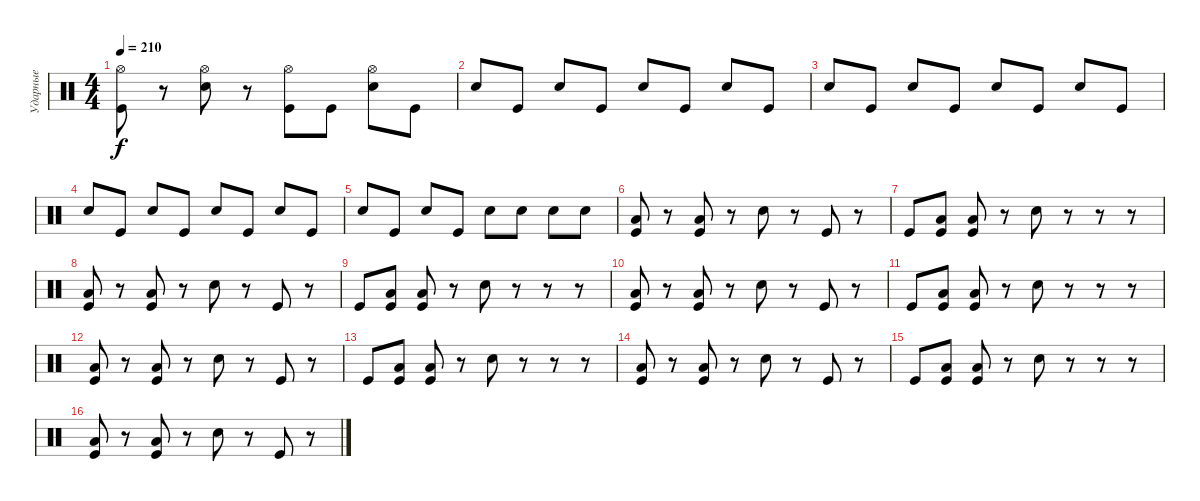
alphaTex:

\track ("Ударные" "Ударные") {instrument percussion}
\staff {score}
\articulation defaults
\ts (4 4)
\tempo 210
\clef neutral
\ks c
("Hi-Hat (open)" "Kick (hit)").8{dy f} r.8 ("Hi-Hat (open)" "Electric Snare (hit)").8 r.8 ("Hi-Hat (open)" "Kick (hit)").8 "Kick (hit)".8 ("Hi-Hat (open)" "Electric Snare (hit)").8 "Kick (hit)".8 |
"Electric Snare (hit)".8 "Kick (hit)".8 "Electric Snare (hit)".8 "Kick (hit)".8 "Electric Snare (hit)".8 "Kick (hit)".8 "Electric Snare (hit)".8 "Kick (hit)".8 |
"Electric Snare (hit)".8 "Kick (hit)".8 "Electric Snare (hit)".8 "Kick (hit)".8 "Electric Snare (hit)".8 "Kick (hit)".8 "Electric Snare (hit)".8 "Kick (hit)".8 |
"Electric Snare (hit)".8 "Kick (hit)".8 "Electric Snare (hit)".8 "Kick (hit)".8 "Electric Snare (hit)".8 "Kick (hit)".8 "Electric Snare (hit)".8 "Kick (hit)".8 |
"Electric Snare (hit)".8 "Kick (hit)".8 "Electric Snare (hit)".8 "Kick (hit)".8 "Electric Snare (hit)".8 "Electric Snare (hit)".8 "Electric Snare (hit)".8 "Electric Snare (hit)".8 |
("Low Tom (hit)" "Kick (hit)").8 r.8 ("Low Tom (hit)" "Kick (hit)").8 r.8 "Electric Snare (hit)".8 r.8 "Kick (hit)".8 r.8 |
"Kick (hit)".8 ("Low Tom (hit)" "Kick (hit)").8 ("Low Tom (hit)" "Kick (hit)").8 r.8 "Electric Snare (hit)".8 r.8 r.8 r.8 |
("Low Tom (hit)" "Kick (hit)").8 r.8 ("Low Tom (hit)" "Kick (hit)").8 r.8 "Electric Snare (hit)".8 r.8 "Kick (hit)".8 r.8 |
"Kick (hit)".8 ("Low Tom (hit)" "Kick (hit)").8 ("Low Tom (hit)" "Kick (hit)").8 r.8 "Electric Snare (hit)".8 r.8 r.8 r.8 |
("Low Tom (hit)" "Kick (hit)").8 r.8 ("Low Tom (hit)" "Kick (hit)").8 r.8 "Electric Snare (hit)".8 r.8 "Kick (hit)".8 r.8 |
"Kick (hit)".8 ("Low Tom (hit)" "Kick (hit)").8 ("Low Tom (hit)" "Kick (hit)").8 r.8 "Electric Snare (hit)".8 r.8 r.8 r.8 |
("Low Tom (hit)" "Kick (hit)").8 r.8 ("Low Tom (hit)" "Kick (hit)").8 r.8 "Electric Snare (hit)".8 r.8 "Kick (hit)".8 r.8 |
"Kick (hit)".8 ("Low Tom (hit)" "Kick (hit)").8 ("Low Tom (hit)" "Kick (hit)").8 r.8 "Electric Snare (hit)".8 r.8 r.8 r.8 |
("Low Tom (hit)" "Kick (hit)").8 r.8 ("Low Tom (hit)" "Kick (hit)").8 r.8 "Electric Snare (hit)".8 r.8 "Kick (hit)".8 r.8 |
"Kick (hit)".8 ("Low Tom (hit)" "Kick (hit)").8 ("Low Tom (hit)" "Kick (hit)").8 r.8 "Electric Snare (hit)".8 r.8 r.8 r.8 |
("Low Tom (hit)" "Kick (hit)").8 r.8 ("Low Tom (hit)" "Kick (hit)").8 r.8 "Electric Snare (hit)".8 r.8 "Kick (hit)".8 r.8
